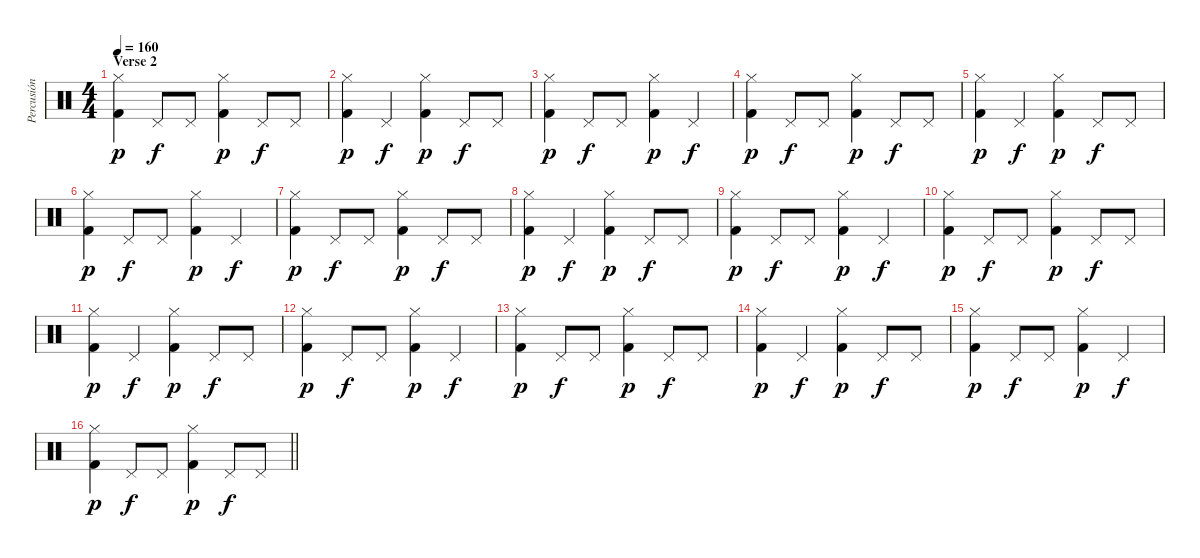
\track ("Percusión" "Percusión") {instrument percussion}
\staff {score}
\articulation defaults
\ts (4 4)
\section ("" "Verse 2")
\tempo 160
\clef neutral
\ks c
("Kick (hit) 2" "Hi-Hat (closed)").4{dy p} "Pedal Hi-Hat (hit)".8{dy f} "Pedal Hi-Hat (hit)".8 ("Kick (hit) 2" "Hi-Hat (closed)").4{dy p} "Pedal Hi-Hat (hit)".8{dy f} "Pedal Hi-Hat (hit)".8 |
("Kick (hit) 2" "Hi-Hat (closed)").4{dy p} "Pedal Hi-Hat (hit)".4{dy f} ("Kick (hit) 2" "Hi-Hat (closed)").4{dy p} "Pedal Hi-Hat (hit)".8{dy f} "Pedal Hi-Hat (hit)".8 |
("Kick (hit) 2" "Hi-Hat (closed)").4{dy p} "Pedal Hi-Hat (hit)".8{dy f} "Pedal Hi-Hat (hit)".8 ("Kick (hit) 2" "Hi-Hat (closed)").4{dy p} "Pedal Hi-Hat (hit)".4{dy f} |
("Kick (hit) 2" "Hi-Hat (closed)").4{dy p} "Pedal Hi-Hat (hit)".8{dy f} "Pedal Hi-Hat (hit)".8 ("Kick (hit) 2" "Hi-Hat (closed)").4{dy p} "Pedal Hi-Hat (hit)".8{dy f} "Pedal Hi-Hat (hit)".8 |
("Kick (hit) 2" "Hi-Hat (closed)").4{dy p} "Pedal Hi-Hat (hit)".4{dy f} ("Kick (hit) 2" "Hi-Hat (closed)").4{dy p} "Pedal Hi-Hat (hit)".8{dy f} "Pedal Hi-Hat (hit)".8 |
("Kick (hit) 2" "Hi-Hat (closed)").4{dy p} "Pedal Hi-Hat (hit)".8{dy f} "Pedal Hi-Hat (hit)".8 ("Kick (hit) 2" "Hi-Hat (closed)").4{dy p} "Pedal Hi-Hat (hit)".4{dy f} |
("Kick (hit) 2" "Hi-Hat (closed)").4{dy p} "Pedal Hi-Hat (hit)".8{dy f} "Pedal Hi-Hat (hit)".8 ("Kick (hit) 2" "Hi-Hat (closed)").4{dy p} "Pedal Hi-Hat (hit)".8{dy f} "Pedal Hi-Hat (hit)".8 |
("Kick (hit) 2" "Hi-Hat (closed)").4{dy p} "Pedal Hi-Hat (hit)".4{dy f} ("Kick (hit) 2" "Hi-Hat (closed)").4{dy p} "Pedal Hi-Hat (hit)".8{dy f} "Pedal Hi-Hat (hit)".8 |
("Kick (hit) 2" "Hi-Hat (closed)").4{dy p} "Pedal Hi-Hat (hit)".8{dy f} "Pedal Hi-Hat (hit)".8 ("Kick (hit) 2" "Hi-Hat (closed)").4{dy p} "Pedal Hi-Hat (hit)".4{dy f} |
("Kick (hit) 2" "Hi-Hat (closed)").4{dy p} "Pedal Hi-Hat (hit)".8{dy f} "Pedal Hi-Hat (hit)".8 ("Kick (hit) 2" "Hi-Hat (closed)").4{dy p} "Pedal Hi-Hat (hit)".8{dy f} "Pedal Hi-Hat (hit)".8 |
("Kick (hit) 2" "Hi-Hat (closed)").4{dy p} "Pedal Hi-Hat (hit)".4{dy f} ("Kick (hit) 2" "Hi-Hat (closed)").4{dy p} "Pedal Hi-Hat (hit)".8{dy f} "Pedal Hi-Hat (hit)".8 |
("Kick (hit) 2" "Hi-Hat (closed)").4{dy p} "Pedal Hi-Hat (hit)".8{dy f} "Pedal Hi-Hat (hit)".8 ("Kick (hit) 2" "Hi-Hat (closed)").4{dy p} "Pedal Hi-Hat (hit)".4{dy f} |
("Kick (hit) 2" "Hi-Hat (closed)").4{dy p} "Pedal Hi-Hat (hit)".8{dy f} "Pedal Hi-Hat (hit)".8 ("Kick (hit) 2" "Hi-Hat (closed)").4{dy p} "Pedal Hi-Hat (hit)".8{dy f} "Pedal Hi-Hat (hit)".8 |
("Kick (hit) 2" "Hi-Hat (closed)").4{dy p} "Pedal Hi-Hat (hit)".4{dy f} ("Kick (hit) 2" "Hi-Hat (closed)").4{dy p} "Pedal Hi-Hat (hit)".8{dy f} "Pedal Hi-Hat (hit)".8 |
("Kick (hit) 2" "Hi-Hat (closed)").4{dy p} "Pedal Hi-Hat (hit)".8{dy f} "Pedal Hi-Hat (hit)".8 ("Kick (hit) 2" "Hi-Hat (closed)").4{dy p} "Pedal Hi-Hat (hit)".4{dy f} |
\barLineRight lightlight
("Kick (hit) 2" "Hi-Hat (closed)").4{dy p} "Pedal Hi-Hat (hit)".8{dy f} "Pedal Hi-Hat (hit)".8 ("Kick (hit) 2" "Hi-Hat (closed)").4{dy p} "Pedal Hi-Hat (hit)".8{dy f} "Pedal Hi-Hat (hit)".8
